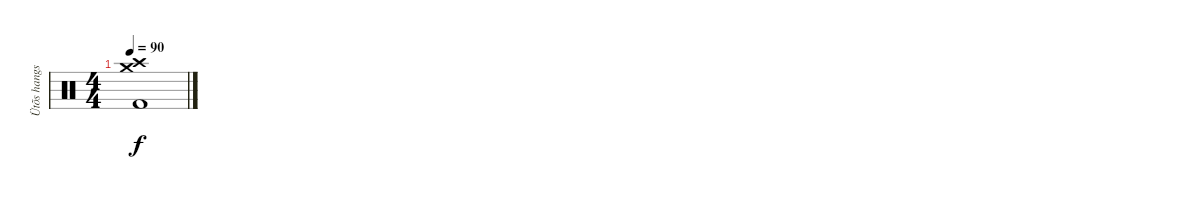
\track ("Ütõs hangszer" "Ütõs hangs") {instrument percussion}
\staff {score}
\articulation defaults
\ts (4 4)
\tempo 90
\clef neutral
\ks c
("Crash medium (hit)" "Crash high (hit)" "Kick (hit) 2").1{dy f}
